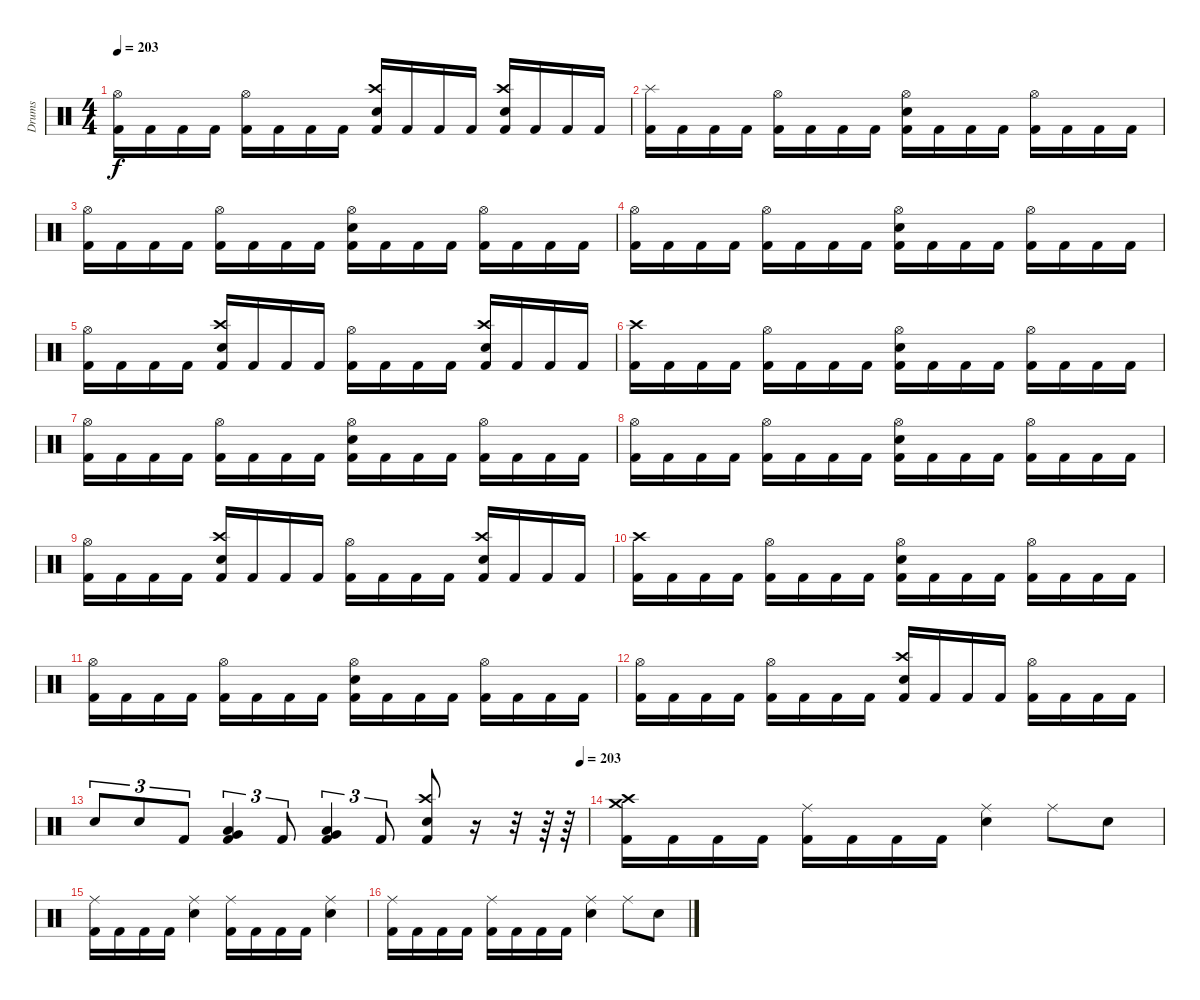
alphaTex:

\track ("Drums" "Drums") {instrument percussion}
\staff {score}
\articulation defaults
\ts (4 4)
\tempo 203
\clef neutral
\ks c
("Hi-Hat (open)" "Kick (hit) 2").16{dy f} "Kick (hit) 2".16 "Kick (hit) 2".16 "Kick (hit) 2".16 ("Hi-Hat (open)" "Kick (hit) 2").16 "Kick (hit) 2".16 "Kick (hit) 2".16 "Kick (hit) 2".16 ("Crash high (hit)" "Electric Snare (hit)" "Kick (hit) 2").16 "Kick (hit) 2".16 "Kick (hit) 2".16 "Kick (hit) 2".16 ("Crash high (hit)" "Electric Snare (hit)" "Kick (hit) 2").16 "Kick (hit) 2".16 "Kick (hit) 2".16 "Kick (hit) 2".16 |
("Splash (hit)" "Kick (hit) 2").16 "Kick (hit) 2".16 "Kick (hit) 2".16 "Kick (hit) 2".16 ("Hi-Hat (open)" "Kick (hit) 2").16 "Kick (hit) 2".16 "Kick (hit) 2".16 "Kick (hit) 2".16 ("Hi-Hat (open)" "Electric Snare (hit)" "Kick (hit) 2").16 "Kick (hit) 2".16 "Kick (hit) 2".16 "Kick (hit) 2".16 ("Hi-Hat (open)" "Kick (hit) 2").16 "Kick (hit) 2".16 "Kick (hit) 2".16 "Kick (hit) 2".16 |
("Hi-Hat (open)" "Kick (hit) 2").16 "Kick (hit) 2".16 "Kick (hit) 2".16 "Kick (hit) 2".16 ("Hi-Hat (open)" "Kick (hit) 2").16 "Kick (hit) 2".16 "Kick (hit) 2".16 "Kick (hit) 2".16 ("Hi-Hat (open)" "Electric Snare (hit)" "Kick (hit) 2").16 "Kick (hit) 2".16 "Kick (hit) 2".16 "Kick (hit) 2".16 ("Hi-Hat (open)" "Kick (hit) 2").16 "Kick (hit) 2".16 "Kick (hit) 2".16 "Kick (hit) 2".16 |
("Hi-Hat (open)" "Kick (hit) 2").16 "Kick (hit) 2".16 "Kick (hit) 2".16 "Kick (hit) 2".16 ("Hi-Hat (open)" "Kick (hit) 2").16 "Kick (hit) 2".16 "Kick (hit) 2".16 "Kick (hit) 2".16 ("Hi-Hat (open)" "Electric Snare (hit)" "Kick (hit) 2").16 "Kick (hit) 2".16 "Kick (hit) 2".16 "Kick (hit) 2".16 ("Hi-Hat (open)" "Kick (hit) 2").16 "Kick (hit) 2".16 "Kick (hit) 2".16 "Kick (hit) 2".16 |
("Hi-Hat (open)" "Kick (hit) 2").16 "Kick (hit) 2".16 "Kick (hit) 2".16 "Kick (hit) 2".16 ("Crash high (hit)" "Electric Snare (hit)" "Kick (hit) 2").16 "Kick (hit) 2".16 "Kick (hit) 2".16 "Kick (hit) 2".16 ("Hi-Hat (open)" "Kick (hit) 2").16 "Kick (hit) 2".16 "Kick (hit) 2".16 "Kick (hit) 2".16 ("Crash high (hit)" "Electric Snare (hit)" "Kick (hit) 2").16 "Kick (hit) 2".16 "Kick (hit) 2".16 "Kick (hit) 2".16 |
("Crash high (hit)" "Kick (hit) 2").16 "Kick (hit) 2".16 "Kick (hit) 2".16 "Kick (hit) 2".16 ("Hi-Hat (open)" "Kick (hit) 2").16 "Kick (hit) 2".16 "Kick (hit) 2".16 "Kick (hit) 2".16 ("Hi-Hat (open)" "Electric Snare (hit)" "Kick (hit) 2").16 "Kick (hit) 2".16 "Kick (hit) 2".16 "Kick (hit) 2".16 ("Hi-Hat (open)" "Kick (hit) 2").16 "Kick (hit) 2".16 "Kick (hit) 2".16 "Kick (hit) 2".16 |
("Hi-Hat (open)" "Kick (hit) 2").16 "Kick (hit) 2".16 "Kick (hit) 2".16 "Kick (hit) 2".16 ("Hi-Hat (open)" "Kick (hit) 2").16 "Kick (hit) 2".16 "Kick (hit) 2".16 "Kick (hit) 2".16 ("Hi-Hat (open)" "Electric Snare (hit)" "Kick (hit) 2").16 "Kick (hit) 2".16 "Kick (hit) 2".16 "Kick (hit) 2".16 ("Hi-Hat (open)" "Kick (hit) 2").16 "Kick (hit) 2".16 "Kick (hit) 2".16 "Kick (hit) 2".16 |
("Hi-Hat (open)" "Kick (hit) 2").16 "Kick (hit) 2".16 "Kick (hit) 2".16 "Kick (hit) 2".16 ("Hi-Hat (open)" "Kick (hit) 2").16 "Kick (hit) 2".16 "Kick (hit) 2".16 "Kick (hit) 2".16 ("Hi-Hat (open)" "Electric Snare (hit)" "Kick (hit) 2").16 "Kick (hit) 2".16 "Kick (hit) 2".16 "Kick (hit) 2".16 ("Hi-Hat (open)" "Kick (hit) 2").16 "Kick (hit) 2".16 "Kick (hit) 2".16 "Kick (hit) 2".16 |
("Hi-Hat (open)" "Kick (hit) 2").16 "Kick (hit) 2".16 "Kick (hit) 2".16 "Kick (hit) 2".16 ("Crash high (hit)" "Electric Snare (hit)" "Kick (hit) 2").16 "Kick (hit) 2".16 "Kick (hit) 2".16 "Kick (hit) 2".16 ("Hi-Hat (open)" "Kick (hit) 2").16 "Kick (hit) 2".16 "Kick (hit) 2".16 "Kick (hit) 2".16 ("Crash high (hit)" "Electric Snare (hit)" "Kick (hit) 2").16 "Kick (hit) 2".16 "Kick (hit) 2".16 "Kick (hit) 2".16 |
("Crash high (hit)" "Kick (hit) 2").16 "Kick (hit) 2".16 "Kick (hit) 2".16 "Kick (hit) 2".16 ("Hi-Hat (open)" "Kick (hit) 2").16 "Kick (hit) 2".16 "Kick (hit) 2".16 "Kick (hit) 2".16 ("Hi-Hat (open)" "Electric Snare (hit)" "Kick (hit) 2").16 "Kick (hit) 2".16 "Kick (hit) 2".16 "Kick (hit) 2".16 ("Hi-Hat (open)" "Kick (hit) 2").16 "Kick (hit) 2".16 "Kick (hit) 2".16 "Kick (hit) 2".16 |
("Hi-Hat (open)" "Kick (hit) 2").16 "Kick (hit) 2".16 "Kick (hit) 2".16 "Kick (hit) 2".16 ("Hi-Hat (open)" "Kick (hit) 2").16 "Kick (hit) 2".16 "Kick (hit) 2".16 "Kick (hit) 2".16 ("Hi-Hat (open)" "Electric Snare (hit)" "Kick (hit) 2").16 "Kick (hit) 2".16 "Kick (hit) 2".16 "Kick (hit) 2".16 ("Hi-Hat (open)" "Kick (hit) 2").16 "Kick (hit) 2".16 "Kick (hit) 2".16 "Kick (hit) 2".16 |
("Hi-Hat (open)" "Kick (hit) 2").16 "Kick (hit) 2".16 "Kick (hit) 2".16 "Kick (hit) 2".16 ("Hi-Hat (open)" "Kick (hit) 2").16 "Kick (hit) 2".16 "Kick (hit) 2".16 "Kick (hit) 2".16 ("Crash high (hit)" "Electric Snare (hit)" "Kick (hit) 2").16 "Kick (hit) 2".16 "Kick (hit) 2".16 "Kick (hit) 2".16 ("Hi-Hat (open)" "Kick (hit) 2").16 "Kick (hit) 2".16 "Kick (hit) 2".16 "Kick (hit) 2".16 |
\tempo (203 0.984375)
"Electric Snare (hit)".8{tu (3 2)} "Electric Snare (hit)".8{tu (3 2)} "Kick (hit) 2".8{tu (3 2)} ("Very Low Tom (hit)" "Low Floor Tom (hit)" "Kick (hit) 2").4{tu (3 2)} "Kick (hit) 2".8{tu (3 2)} ("Very Low Tom (hit)" "Low Floor Tom (hit)" "Kick (hit) 2").4{tu (3 2)} "Kick (hit) 2".8{tu (3 2)} ("Crash high (hit)" "Electric Snare (hit)" "Kick (hit) 2").8 r.16 r.32 r.64 r.64 |
("Crash medium (hit)" "Crash high (hit)" "Kick (hit) 2").16 "Kick (hit) 2".16 "Kick (hit) 2".16 "Kick (hit) 2".16 ("Ride (middle)" "Kick (hit) 2").16 "Kick (hit) 2".16 "Kick (hit) 2".16 "Kick (hit) 2".16 ("Ride (middle)" "Electric Snare (hit)").4 "Ride (middle)".8 "Electric Snare (hit)".8 |
("Ride (middle)" "Kick (hit) 2").16 "Kick (hit) 2".16 "Kick (hit) 2".16 "Kick (hit) 2".16 ("Ride (middle)" "Electric Snare (hit)").4 ("Ride (middle)" "Kick (hit) 2").16 "Kick (hit) 2".16 "Kick (hit) 2".16 "Kick (hit) 2".16 ("Ride (middle)" "Electric Snare (hit)").4 |
("Ride (middle)" "Kick (hit) 2").16 "Kick (hit) 2".16 "Kick (hit) 2".16 "Kick (hit) 2".16 ("Ride (middle)" "Kick (hit) 2").16 "Kick (hit) 2".16 "Kick (hit) 2".16 "Kick (hit) 2".16 ("Ride (middle)" "Electric Snare (hit)").4 "Ride (middle)".8 "Electric Snare (hit)".8
